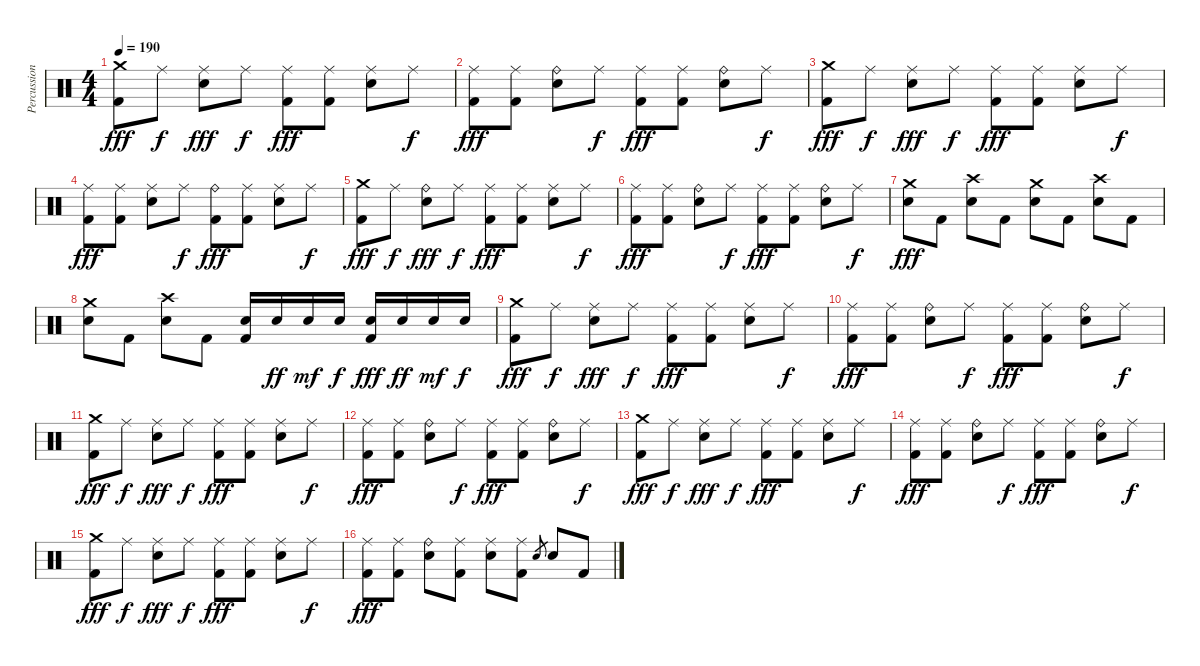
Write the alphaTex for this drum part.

\track ("Percussions" "Percussion") {instrument percussion}
\staff {score}
\articulation defaults
\ts (4 4)
\tempo 190
\clef neutral
\ks c
("Crash medium (hit)" "Kick (hit) 2").8{dy fff} "Ride (middle)".8{dy f} ("Ride (middle)" "Electric Snare (hit)").8{dy fff} "Ride (middle)".8{dy f} ("Ride (middle)" "Kick (hit) 2").8{dy fff} ("Ride (middle)" "Kick (hit) 2").8 ("Ride (middle)" "Electric Snare (hit)").8 "Ride (middle)".8{dy f} |
("Ride (middle)" "Kick (hit) 2").8{dy fff} ("Ride (middle)" "Kick (hit) 2").8 ("Ride (bell)" "Electric Snare (hit)").8 "Ride (middle)".8{dy f} ("Ride (middle)" "Kick (hit) 2").8{dy fff} ("Ride (middle)" "Kick (hit) 2").8 ("Ride (bell)" "Electric Snare (hit)").8 "Ride (middle)".8{dy f} |
("Crash medium (hit)" "Kick (hit) 2").8{dy fff} "Ride (middle)".8{dy f} ("Ride (middle)" "Electric Snare (hit)").8{dy fff} "Ride (middle)".8{dy f} ("Ride (middle)" "Kick (hit) 2").8{dy fff} ("Ride (middle)" "Kick (hit) 2").8 ("Ride (middle)" "Electric Snare (hit)").8 "Ride (middle)".8{dy f} |
("Ride (middle)" "Kick (hit) 2").8{dy fff} ("Ride (middle)" "Kick (hit) 2").8 ("Ride (middle)" "Electric Snare (hit)").8 "Ride (middle)".8{dy f} ("Ride (bell)" "Kick (hit) 2").8{dy fff} ("Ride (middle)" "Kick (hit) 2").8 ("Ride (middle)" "Electric Snare (hit)").8 "Ride (middle)".8{dy f} |
("Crash medium (hit)" "Kick (hit) 2").8{dy fff} "Ride (middle)".8{dy f} ("Ride (bell)" "Electric Snare (hit)").8{dy fff} "Ride (middle)".8{dy f} ("Ride (middle)" "Kick (hit) 2").8{dy fff} ("Ride (middle)" "Kick (hit) 2").8 ("Ride (middle)" "Electric Snare (hit)").8 "Ride (middle)".8{dy f} |
("Ride (middle)" "Kick (hit) 2").8{dy fff} ("Ride (middle)" "Kick (hit) 2").8 ("Ride (bell)" "Electric Snare (hit)").8 "Ride (middle)".8{dy f} ("Ride (middle)" "Kick (hit) 2").8{dy fff} ("Ride (middle)" "Kick (hit) 2").8 ("Ride (bell)" "Electric Snare (hit)").8 "Ride (middle)".8{dy f} |
("Crash medium (hit)" "Electric Snare (hit)").8{dy fff} "Kick (hit) 2".8 ("Crash high (hit)" "Electric Snare (hit)").8 "Kick (hit) 2".8 ("Crash medium (hit)" "Electric Snare (hit)").8 "Kick (hit) 2".8 ("Crash high (hit)" "Electric Snare (hit)").8 "Kick (hit) 2".8 |
("Crash medium (hit)" "Electric Snare (hit)").8 "Kick (hit) 2".8 ("Crash high (hit)" "Electric Snare (hit)").8 "Kick (hit) 2".8 ("Electric Snare (hit)" "Kick (hit) 2").16 "Electric Snare (hit)".16{dy ff} "Electric Snare (hit)".16{dy mf} "Electric Snare (hit)".16{dy f} ("Electric Snare (hit)" "Kick (hit) 2").16{dy fff} "Electric Snare (hit)".16{dy ff} "Electric Snare (hit)".16{dy mf} "Electric Snare (hit)".16{dy f} |
("Crash medium (hit)" "Kick (hit) 2").8{dy fff} "Ride (middle)".8{dy f} ("Ride (middle)" "Electric Snare (hit)").8{dy fff} "Ride (middle)".8{dy f} ("Ride (middle)" "Kick (hit) 2").8{dy fff} ("Ride (middle)" "Kick (hit) 2").8 ("Ride (middle)" "Electric Snare (hit)").8 "Ride (middle)".8{dy f} |
("Ride (middle)" "Kick (hit) 2").8{dy fff} ("Ride (middle)" "Kick (hit) 2").8 ("Ride (bell)" "Electric Snare (hit)").8 "Ride (middle)".8{dy f} ("Ride (middle)" "Kick (hit) 2").8{dy fff} ("Ride (middle)" "Kick (hit) 2").8 ("Ride (bell)" "Electric Snare (hit)").8 "Ride (middle)".8{dy f} |
("Crash medium (hit)" "Kick (hit) 2").8{dy fff} "Ride (middle)".8{dy f} ("Ride (middle)" "Electric Snare (hit)").8{dy fff} "Ride (middle)".8{dy f} ("Ride (middle)" "Kick (hit) 2").8{dy fff} ("Ride (middle)" "Kick (hit) 2").8 ("Ride (middle)" "Electric Snare (hit)").8 "Ride (middle)".8{dy f} |
("Ride (middle)" "Kick (hit) 2").8{dy fff} ("Ride (middle)" "Kick (hit) 2").8 ("Ride (bell)" "Electric Snare (hit)").8 "Ride (middle)".8{dy f} ("Ride (middle)" "Kick (hit) 2").8{dy fff} ("Ride (middle)" "Kick (hit) 2").8 ("Ride (bell)" "Electric Snare (hit)").8 "Ride (middle)".8{dy f} |
("Crash medium (hit)" "Kick (hit) 2").8{dy fff} "Ride (middle)".8{dy f} ("Ride (middle)" "Electric Snare (hit)").8{dy fff} "Ride (middle)".8{dy f} ("Ride (middle)" "Kick (hit) 2").8{dy fff} ("Ride (middle)" "Kick (hit) 2").8 ("Ride (middle)" "Electric Snare (hit)").8 "Ride (middle)".8{dy f} |
("Ride (middle)" "Kick (hit) 2").8{dy fff} ("Ride (middle)" "Kick (hit) 2").8 ("Ride (bell)" "Electric Snare (hit)").8 "Ride (middle)".8{dy f} ("Ride (middle)" "Kick (hit) 2").8{dy fff} ("Ride (middle)" "Kick (hit) 2").8 ("Ride (bell)" "Electric Snare (hit)").8 "Ride (middle)".8{dy f} |
("Crash medium (hit)" "Kick (hit) 2").8{dy fff} "Ride (middle)".8{dy f} ("Ride (middle)" "Electric Snare (hit)").8{dy fff} "Ride (middle)".8{dy f} ("Ride (middle)" "Kick (hit) 2").8{dy fff} ("Ride (middle)" "Kick (hit) 2").8 ("Ride (middle)" "Electric Snare (hit)").8 "Ride (middle)".8{dy f} |
("Ride (middle)" "Kick (hit) 2").8{dy fff} ("Ride (middle)" "Kick (hit) 2").8 ("Ride (bell)" "Electric Snare (hit)").8 ("Ride (middle)" "Kick (hit) 2").8 ("Ride (middle)" "Electric Snare (hit)").8 ("Ride (middle)" "Kick (hit) 2").8 "Electric Snare (hit)".8{gr} "Electric Snare (hit)".8 "Kick (hit) 2".8
